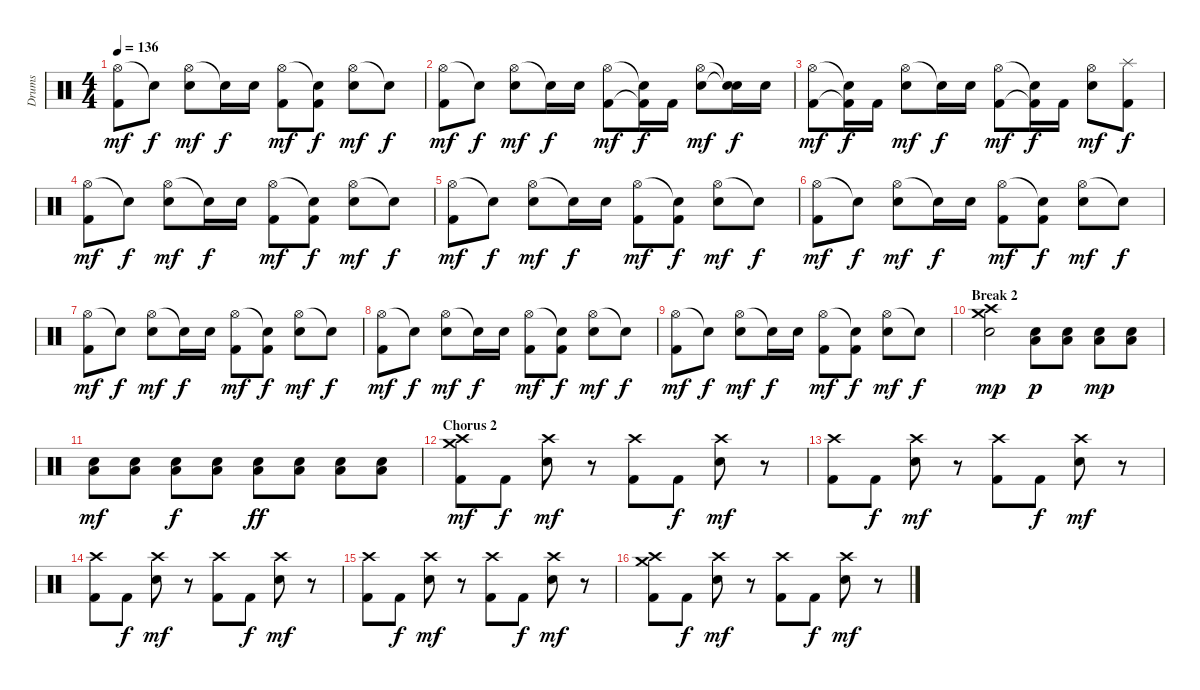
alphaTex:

\track ("Drums" "Drums") {instrument percussion}
\staff {score}
\articulation defaults
\ts (4 4)
\tempo 136
\clef neutral
\ks c
("Hi-Hat (open)" "Kick (hit) 2").8{dy mf} "Snare (hit)"{t}.8{dy f} ("Hi-Hat (open)" "Electric Snare (hit)").8{dy mf} "Snare (hit)"{t}.16{dy f} "Electric Snare (hit)".16 ("Hi-Hat (open)" "Kick (hit) 2").8{dy mf} ("Snare (hit)"{t} "Kick (hit) 2").8{dy f} ("Hi-Hat (open)" "Electric Snare (hit)").8{dy mf} "Snare (hit)"{t}.8{dy f} |
("Hi-Hat (open)" "Kick (hit) 2").8{dy mf} "Snare (hit)"{t}.8{dy f} ("Hi-Hat (open)" "Electric Snare (hit)").8{dy mf} "Snare (hit)"{t}.16{dy f} "Electric Snare (hit)".16 ("Hi-Hat (open)" "Kick (hit) 2").8{dy mf} ("Snare (hit)"{t} "Kick (hit) 2"{t}).16{dy f} "Kick (hit) 2".16 ("Hi-Hat (open)" "Electric Snare (hit)").8{dy mf} ("Snare (hit)"{t} "Snare (hit)"{t}).16{dy f} "Electric Snare (hit)".16 |
("Hi-Hat (open)" "Kick (hit) 2").8{dy mf} ("Snare (hit)"{t} "Kick (hit) 2"{t}).16{dy f} "Kick (hit) 2".16 ("Hi-Hat (open)" "Electric Snare (hit)").8{dy mf} "Snare (hit)"{t}.16{dy f} "Electric Snare (hit)".16 ("Hi-Hat (open)" "Kick (hit) 2").8{dy mf} ("Snare (hit)"{t} "Kick (hit) 2"{t}).16{dy f} "Kick (hit) 2".16 ("Hi-Hat (open)" "Electric Snare (hit)").8{dy mf} ("Splash (hit)" "Kick (hit) 2").8{dy f} |
("Hi-Hat (open)" "Kick (hit) 2").8{dy mf} "Snare (hit)"{t}.8{dy f} ("Hi-Hat (open)" "Electric Snare (hit)").8{dy mf} "Snare (hit)"{t}.16{dy f} "Electric Snare (hit)".16 ("Hi-Hat (open)" "Kick (hit) 2").8{dy mf} ("Snare (hit)"{t} "Kick (hit) 2").8{dy f} ("Hi-Hat (open)" "Electric Snare (hit)").8{dy mf} "Snare (hit)"{t}.8{dy f} |
("Hi-Hat (open)" "Kick (hit) 2").8{dy mf} "Snare (hit)"{t}.8{dy f} ("Hi-Hat (open)" "Electric Snare (hit)").8{dy mf} "Snare (hit)"{t}.16{dy f} "Electric Snare (hit)".16 ("Hi-Hat (open)" "Kick (hit) 2").8{dy mf} ("Snare (hit)"{t} "Kick (hit) 2").8{dy f} ("Hi-Hat (open)" "Electric Snare (hit)").8{dy mf} "Snare (hit)"{t}.8{dy f} |
("Hi-Hat (open)" "Kick (hit) 2").8{dy mf} "Snare (hit)"{t}.8{dy f} ("Hi-Hat (open)" "Electric Snare (hit)").8{dy mf} "Snare (hit)"{t}.16{dy f} "Electric Snare (hit)".16 ("Hi-Hat (open)" "Kick (hit) 2").8{dy mf} ("Snare (hit)"{t} "Kick (hit) 2").8{dy f} ("Hi-Hat (open)" "Electric Snare (hit)").8{dy mf} "Snare (hit)"{t}.8{dy f} |
("Hi-Hat (open)" "Kick (hit) 2").8{dy mf} "Snare (hit)"{t}.8{dy f} ("Hi-Hat (open)" "Electric Snare (hit)").8{dy mf} "Snare (hit)"{t}.16{dy f} "Electric Snare (hit)".16 ("Hi-Hat (open)" "Kick (hit) 2").8{dy mf} ("Snare (hit)"{t} "Kick (hit) 2").8{dy f} ("Hi-Hat (open)" "Electric Snare (hit)").8{dy mf} "Snare (hit)"{t}.8{dy f} |
("Hi-Hat (open)" "Kick (hit) 2").8{dy mf} "Snare (hit)"{t}.8{dy f} ("Hi-Hat (open)" "Electric Snare (hit)").8{dy mf} "Snare (hit)"{t}.16{dy f} "Electric Snare (hit)".16 ("Hi-Hat (open)" "Kick (hit) 2").8{dy mf} ("Snare (hit)"{t} "Kick (hit) 2").8{dy f} ("Hi-Hat (open)" "Electric Snare (hit)").8{dy mf} "Snare (hit)"{t}.8{dy f} |
("Hi-Hat (open)" "Kick (hit) 2").8{dy mf} "Snare (hit)"{t}.8{dy f} ("Hi-Hat (open)" "Electric Snare (hit)").8{dy mf} "Snare (hit)"{t}.16{dy f} "Electric Snare (hit)".16 ("Hi-Hat (open)" "Kick (hit) 2").8{dy mf} ("Snare (hit)"{t} "Kick (hit) 2").8{dy f} ("Hi-Hat (open)" "Electric Snare (hit)").8{dy mf} "Snare (hit)"{t}.8{dy f} |
\section ("" "Break 2")
("Crash medium (hit)" "Crash high (hit)" "Electric Snare (hit)").2{dy mp} ("Low Tom (hit)" "Electric Snare (hit)").8{dy p} ("Low Tom (hit)" "Electric Snare (hit)").8 ("Low Tom (hit)" "Electric Snare (hit)").8{dy mp} ("Low Tom (hit)" "Electric Snare (hit)").8 |
("Low Tom (hit)" "Electric Snare (hit)").8{dy mf} ("Low Tom (hit)" "Electric Snare (hit)").8 ("Low Tom (hit)" "Electric Snare (hit)").8{dy f} ("Low Tom (hit)" "Electric Snare (hit)").8 ("Low Tom (hit)" "Electric Snare (hit)").8{dy ff} ("Low Tom (hit)" "Electric Snare (hit)").8 ("Low Tom (hit)" "Electric Snare (hit)").8 ("Low Tom (hit)" "Electric Snare (hit)").8 |
\section ("" "Chorus 2")
("Crash medium (hit)" "Crash high (hit)" "Kick (hit) 2").8{dy mf} "Kick (hit) 2".8{dy f} ("Crash high (hit)" "Electric Snare (hit)").8{dy mf} r.8 ("Crash high (hit)" "Kick (hit) 2").8 "Kick (hit) 2".8{dy f} ("Crash high (hit)" "Electric Snare (hit)").8{dy mf} r.8 |
("Crash high (hit)" "Kick (hit) 2").8 "Kick (hit) 2".8{dy f} ("Crash high (hit)" "Electric Snare (hit)").8{dy mf} r.8 ("Crash high (hit)" "Kick (hit) 2").8 "Kick (hit) 2".8{dy f} ("Crash high (hit)" "Electric Snare (hit)").8{dy mf} r.8 |
("Crash high (hit)" "Kick (hit) 2").8 "Kick (hit) 2".8{dy f} ("Crash high (hit)" "Electric Snare (hit)").8{dy mf} r.8 ("Crash high (hit)" "Kick (hit) 2").8 "Kick (hit) 2".8{dy f} ("Crash high (hit)" "Electric Snare (hit)").8{dy mf} r.8 |
("Crash high (hit)" "Kick (hit) 2").8 "Kick (hit) 2".8{dy f} ("Crash high (hit)" "Electric Snare (hit)").8{dy mf} r.8 ("Crash high (hit)" "Kick (hit) 2").8 "Kick (hit) 2".8{dy f} ("Crash high (hit)" "Electric Snare (hit)").8{dy mf} r.8 |
("Crash medium (hit)" "Crash high (hit)" "Kick (hit) 2").8 "Kick (hit) 2".8{dy f} ("Crash high (hit)" "Electric Snare (hit)").8{dy mf} r.8 ("Crash high (hit)" "Kick (hit) 2").8 "Kick (hit) 2".8{dy f} ("Crash high (hit)" "Electric Snare (hit)").8{dy mf} r.8
